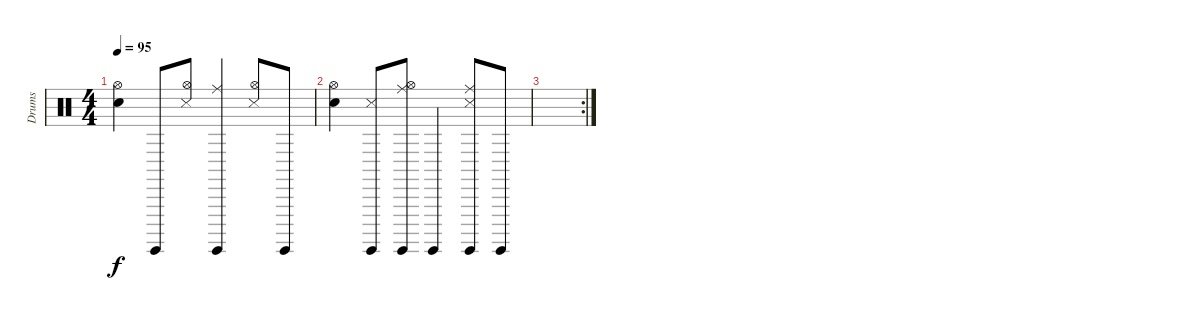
\track ("Drums" "Drums") {instrument percussion}
\staff {score}
\articulation defaults
\ts (4 4)
\tempo 95
\clef neutral
\ks c
("Snare (hit) 2" "Hi-Hat (open)").4{dy f} "Surdo (hit)".8 ("Hi-Hat (open)" "Snare (side stick) 3").8 ("Surdo (hit)" "Ride (middle)").4 ("Hi-Hat (open)" "Snare (side stick) 3").8 "Surdo (hit)".8 |
("Snare (hit) 2" "Hi-Hat (open)").4 ("Surdo (hit)" "Snare (side stick) 3").8 ("Surdo (hit)" "Ride (middle)" "Hi-Hat (open)").8 "Surdo (hit)".4 ("Surdo (hit)" "Ride (middle)" "Snare (side stick) 3").8 "Surdo (hit)".8 |
\rc 2
